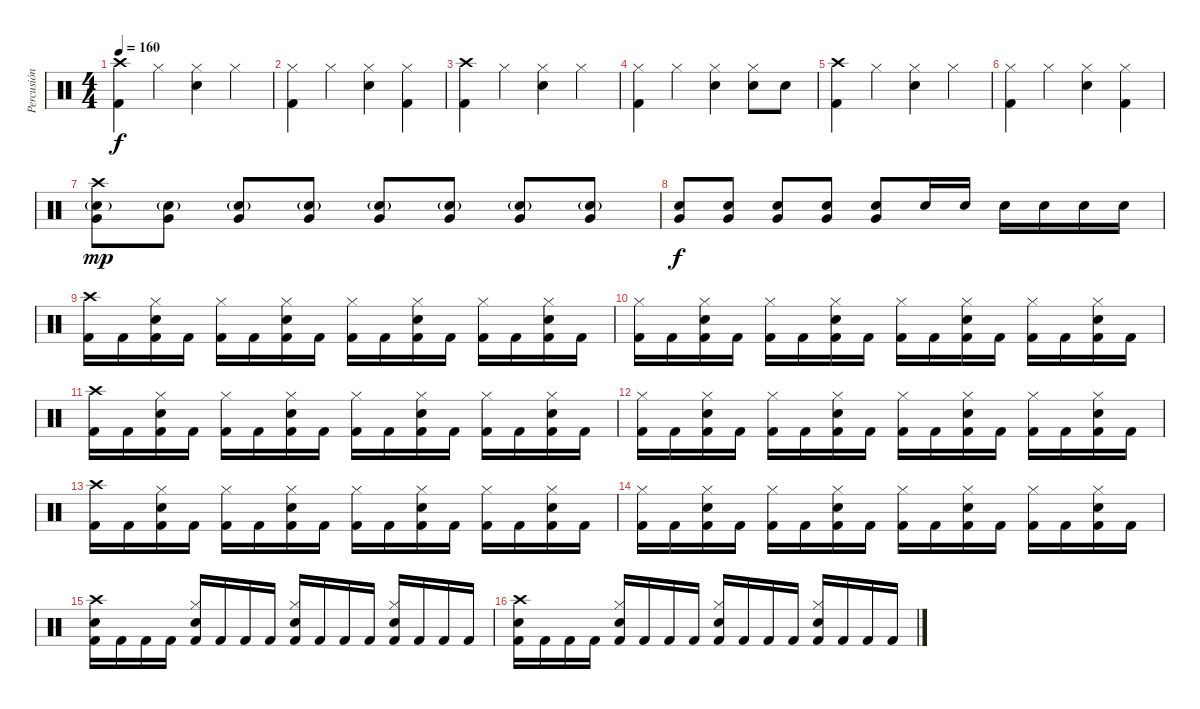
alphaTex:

\track ("Percusión" "Percusión") {instrument percussion}
\staff {score}
\articulation defaults
\ts (4 4)
\tempo 160
\clef neutral
\ks c
("Crash high (hit)" "Kick (hit) 2").4{dy f} "Hi-Hat (closed)".4 ("Hi-Hat (closed)" "Electric Snare (hit)").4 "Hi-Hat (closed)".4 |
("Hi-Hat (closed)" "Kick (hit) 2").4 "Hi-Hat (closed)".4 ("Hi-Hat (closed)" "Electric Snare (hit)").4 ("Hi-Hat (closed)" "Kick (hit) 2").4 |
("Crash high (hit)" "Kick (hit) 2").4 "Hi-Hat (closed)".4 ("Hi-Hat (closed)" "Electric Snare (hit)").4 "Hi-Hat (closed)".4 |
("Hi-Hat (closed)" "Kick (hit) 2").4 "Hi-Hat (closed)".4 ("Hi-Hat (closed)" "Electric Snare (hit)").4 ("Hi-Hat (closed)" "Electric Snare (hit)").8 "Electric Snare (hit)".8 |
("Crash high (hit)" "Kick (hit) 2").4 "Hi-Hat (closed)".4 ("Hi-Hat (closed)" "Electric Snare (hit)").4 "Hi-Hat (closed)".4 |
("Hi-Hat (closed)" "Kick (hit) 2").4 "Hi-Hat (closed)".4 ("Hi-Hat (closed)" "Electric Snare (hit)").4 ("Hi-Hat (closed)" "Kick (hit) 2").4 |
("Crash high (hit)" "Very Low Tom (hit)" "Electric Snare (hit)"{g}).8{dy mp} ("Very Low Tom (hit)" "Electric Snare (hit)"{g}).8 ("Very Low Tom (hit)" "Electric Snare (hit)"{g}).8 ("Very Low Tom (hit)" "Electric Snare (hit)"{g}).8 ("Very Low Tom (hit)" "Electric Snare (hit)"{g}).8 ("Very Low Tom (hit)" "Electric Snare (hit)"{g}).8 ("Very Low Tom (hit)" "Electric Snare (hit)"{g}).8 ("Very Low Tom (hit)" "Electric Snare (hit)"{g}).8 |
("Very Low Tom (hit)" "Electric Snare (hit)").8{dy f} ("Very Low Tom (hit)" "Electric Snare (hit)").8 ("Very Low Tom (hit)" "Electric Snare (hit)").8 ("Very Low Tom (hit)" "Electric Snare (hit)").8 ("Very Low Tom (hit)" "Electric Snare (hit)").8 "Electric Snare (hit)".16 "Electric Snare (hit)".16 "Electric Snare (hit)".16 "Electric Snare (hit)".16 "Electric Snare (hit)".16 "Electric Snare (hit)".16 |
("Crash high (hit)" "Kick (hit) 2").16 "Kick (hit) 2".16 ("Hi-Hat (closed)" "Electric Snare (hit)" "Kick (hit) 2").16 "Kick (hit) 2".16 ("Hi-Hat (closed)" "Kick (hit) 2").16 "Kick (hit) 2".16 ("Hi-Hat (closed)" "Electric Snare (hit)" "Kick (hit) 2").16 "Kick (hit) 2".16 ("Hi-Hat (closed)" "Kick (hit) 2").16 "Kick (hit) 2".16 ("Hi-Hat (closed)" "Electric Snare (hit)" "Kick (hit) 2").16 "Kick (hit) 2".16 ("Hi-Hat (closed)" "Kick (hit) 2").16 "Kick (hit) 2".16 ("Hi-Hat (closed)" "Electric Snare (hit)" "Kick (hit) 2").16 "Kick (hit) 2".16 |
("Hi-Hat (closed)" "Kick (hit) 2").16 "Kick (hit) 2".16 ("Hi-Hat (closed)" "Electric Snare (hit)" "Kick (hit) 2").16 "Kick (hit) 2".16 ("Hi-Hat (closed)" "Kick (hit) 2").16 "Kick (hit) 2".16 ("Hi-Hat (closed)" "Electric Snare (hit)" "Kick (hit) 2").16 "Kick (hit) 2".16 ("Hi-Hat (closed)" "Kick (hit) 2").16 "Kick (hit) 2".16 ("Hi-Hat (closed)" "Electric Snare (hit)" "Kick (hit) 2").16 "Kick (hit) 2".16 ("Hi-Hat (closed)" "Kick (hit) 2").16 "Kick (hit) 2".16 ("Hi-Hat (closed)" "Electric Snare (hit)" "Kick (hit) 2").16 "Kick (hit) 2".16 |
("Crash high (hit)" "Kick (hit) 2").16 "Kick (hit) 2".16 ("Hi-Hat (closed)" "Electric Snare (hit)" "Kick (hit) 2").16 "Kick (hit) 2".16 ("Hi-Hat (closed)" "Kick (hit) 2").16 "Kick (hit) 2".16 ("Hi-Hat (closed)" "Electric Snare (hit)" "Kick (hit) 2").16 "Kick (hit) 2".16 ("Hi-Hat (closed)" "Kick (hit) 2").16 "Kick (hit) 2".16 ("Hi-Hat (closed)" "Electric Snare (hit)" "Kick (hit) 2").16 "Kick (hit) 2".16 ("Hi-Hat (closed)" "Kick (hit) 2").16 "Kick (hit) 2".16 ("Hi-Hat (closed)" "Electric Snare (hit)" "Kick (hit) 2").16 "Kick (hit) 2".16 |
("Hi-Hat (closed)" "Kick (hit) 2").16 "Kick (hit) 2".16 ("Hi-Hat (closed)" "Electric Snare (hit)" "Kick (hit) 2").16 "Kick (hit) 2".16 ("Hi-Hat (closed)" "Kick (hit) 2").16 "Kick (hit) 2".16 ("Hi-Hat (closed)" "Electric Snare (hit)" "Kick (hit) 2").16 "Kick (hit) 2".16 ("Hi-Hat (closed)" "Kick (hit) 2").16 "Kick (hit) 2".16 ("Hi-Hat (closed)" "Electric Snare (hit)" "Kick (hit) 2").16 "Kick (hit) 2".16 ("Hi-Hat (closed)" "Kick (hit) 2").16 "Kick (hit) 2".16 ("Hi-Hat (closed)" "Electric Snare (hit)" "Kick (hit) 2").16 "Kick (hit) 2".16 |
("Crash high (hit)" "Kick (hit) 2").16 "Kick (hit) 2".16 ("Hi-Hat (closed)" "Electric Snare (hit)" "Kick (hit) 2").16 "Kick (hit) 2".16 ("Hi-Hat (closed)" "Kick (hit) 2").16 "Kick (hit) 2".16 ("Hi-Hat (closed)" "Electric Snare (hit)" "Kick (hit) 2").16 "Kick (hit) 2".16 ("Hi-Hat (closed)" "Kick (hit) 2").16 "Kick (hit) 2".16 ("Hi-Hat (closed)" "Electric Snare (hit)" "Kick (hit) 2").16 "Kick (hit) 2".16 ("Hi-Hat (closed)" "Kick (hit) 2").16 "Kick (hit) 2".16 ("Hi-Hat (closed)" "Electric Snare (hit)" "Kick (hit) 2").16 "Kick (hit) 2".16 |
("Hi-Hat (closed)" "Kick (hit) 2").16 "Kick (hit) 2".16 ("Hi-Hat (closed)" "Electric Snare (hit)" "Kick (hit) 2").16 "Kick (hit) 2".16 ("Hi-Hat (closed)" "Kick (hit) 2").16 "Kick (hit) 2".16 ("Hi-Hat (closed)" "Electric Snare (hit)" "Kick (hit) 2").16 "Kick (hit) 2".16 ("Hi-Hat (closed)" "Kick (hit) 2").16 "Kick (hit) 2".16 ("Hi-Hat (closed)" "Electric Snare (hit)" "Kick (hit) 2").16 "Kick (hit) 2".16 ("Hi-Hat (closed)" "Kick (hit) 2").16 "Kick (hit) 2".16 ("Hi-Hat (closed)" "Electric Snare (hit)" "Kick (hit) 2").16 "Kick (hit) 2".16 |
("Crash high (hit)" "Electric Snare (hit)" "Kick (hit) 2").16 "Kick (hit) 2".16 "Kick (hit) 2".16 "Kick (hit) 2".16 ("Hi-Hat (closed)" "Electric Snare (hit)" "Kick (hit) 2").16 "Kick (hit) 2".16 "Kick (hit) 2".16 "Kick (hit) 2".16 ("Hi-Hat (closed)" "Electric Snare (hit)" "Kick (hit) 2").16 "Kick (hit) 2".16 "Kick (hit) 2".16 "Kick (hit) 2".16 ("Hi-Hat (closed)" "Electric Snare (hit)" "Kick (hit) 2").16 "Kick (hit) 2".16 "Kick (hit) 2".16 "Kick (hit) 2".16 |
("Crash high (hit)" "Electric Snare (hit)" "Kick (hit) 2").16 "Kick (hit) 2".16 "Kick (hit) 2".16 "Kick (hit) 2".16 ("Hi-Hat (closed)" "Electric Snare (hit)" "Kick (hit) 2").16 "Kick (hit) 2".16 "Kick (hit) 2".16 "Kick (hit) 2".16 ("Hi-Hat (closed)" "Electric Snare (hit)" "Kick (hit) 2").16 "Kick (hit) 2".16 "Kick (hit) 2".16 "Kick (hit) 2".16 ("Hi-Hat (closed)" "Electric Snare (hit)" "Kick (hit) 2").16 "Kick (hit) 2".16 "Kick (hit) 2".16 "Kick (hit) 2".16
